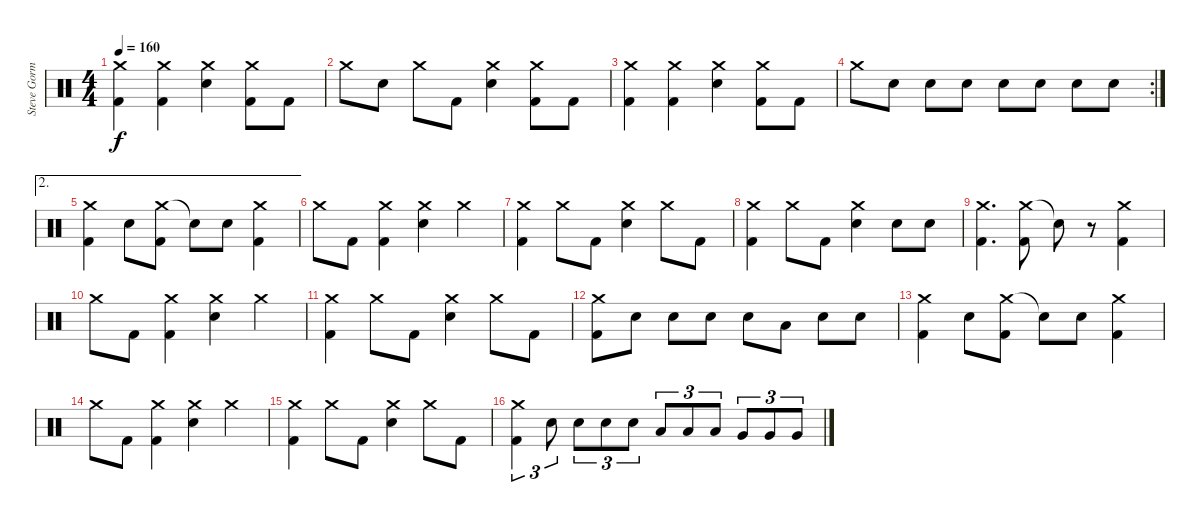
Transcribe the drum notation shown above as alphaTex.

\track ("Steve Gorman " "Steve Gorm") {instrument percussion}
\staff {score}
\articulation defaults
\ts (4 4)
\tempo 160
\clef neutral
\ks c
("Crash medium (hit)" "Kick (hit) 2").4{dy f} ("Crash medium (hit)" "Kick (hit) 2").4 ("Crash medium (hit)" "Snare (hit) 2").4 ("Crash medium (hit)" "Kick (hit) 2").8 "Kick (hit) 2".8 |
"Crash medium (hit)".8 "Snare (hit) 2".8 "Crash medium (hit)".8 "Kick (hit) 2".8 ("Crash medium (hit)" "Snare (hit) 2").4 ("Crash medium (hit)" "Kick (hit) 2").8 "Kick (hit) 2".8 |
("Crash medium (hit)" "Kick (hit) 2").4 ("Crash medium (hit)" "Kick (hit) 2").4 ("Crash medium (hit)" "Snare (hit) 2").4 ("Crash medium (hit)" "Kick (hit) 2").8 "Kick (hit) 2".8 |
\rc 2 "Crash medium (hit)".8 "Snare (hit) 2".8 "Snare (hit) 2".8 "Snare (hit) 2".8 "Snare (hit) 2".8 "Snare (hit) 2".8 "Snare (hit) 2".8 "Snare (hit) 2".8
|
\ae 2
("Crash medium (hit)" "Kick (hit) 2").4 "Snare (hit) 2".8 ("Crash medium (hit)" "Kick (hit) 2").8 "Snare (hit)"{t}.8 "Snare (hit) 2".8 ("Crash medium (hit)" "Kick (hit) 2").4 |
"Crash medium (hit)".8 "Kick (hit) 2".8 ("Crash medium (hit)" "Kick (hit) 2").4 ("Crash medium (hit)" "Snare (hit) 2").4 "Crash medium (hit)".4 |
("Crash medium (hit)" "Kick (hit) 2").4 "Crash medium (hit)".8 "Kick (hit) 2".8 ("Crash medium (hit)" "Snare (hit) 2").4 "Crash medium (hit)".8 "Kick (hit) 2".8 |
("Crash medium (hit)" "Kick (hit) 2").4 "Crash medium (hit)".8 "Kick (hit) 2".8 ("Crash medium (hit)" "Snare (hit) 2").4 "Snare (hit) 2".8 "Snare (hit) 2".8 |
("Crash medium (hit)" "Kick (hit) 2").4{d} ("Crash medium (hit)" "Kick (hit) 2").8 "Snare (hit)"{t}.8 r.8 ("Crash medium (hit)" "Kick (hit) 2").4 |
"Crash medium (hit)".8 "Kick (hit) 2".8 ("Crash medium (hit)" "Kick (hit) 2").4 ("Crash medium (hit)" "Snare (hit) 2").4 "Crash medium (hit)".4 |
("Crash medium (hit)" "Kick (hit) 2").4 "Crash medium (hit)".8 "Kick (hit) 2".8 ("Crash medium (hit)" "Snare (hit) 2").4 "Crash medium (hit)".8 "Kick (hit) 2".8 |
("Crash medium (hit)" "Kick (hit) 2").8 "Snare (hit) 2".8 "Snare (hit) 2".8 "Snare (hit) 2".8 "Snare (hit) 2".8 "Low Tom (hit)".8 "Snare (hit) 2".8 "Snare (hit) 2".8 |
("Crash medium (hit)" "Kick (hit) 2").4 "Snare (hit) 2".8 ("Crash medium (hit)" "Kick (hit) 2").8 "Snare (hit)"{t}.8 "Snare (hit) 2".8 ("Crash medium (hit)" "Kick (hit) 2").4 |
"Crash medium (hit)".8 "Kick (hit) 2".8 ("Crash medium (hit)" "Kick (hit) 2").4 ("Crash medium (hit)" "Snare (hit) 2").4 "Crash medium (hit)".4 |
("Crash medium (hit)" "Kick (hit) 2").4 "Crash medium (hit)".8 "Kick (hit) 2".8 ("Crash medium (hit)" "Snare (hit) 2").4 "Crash medium (hit)".8 "Kick (hit) 2".8 |
("Crash medium (hit)" "Kick (hit) 2").4{tu (3 2)} "Snare (hit) 2".8{tu (3 2)} "Snare (hit) 2".8{tu (3 2)} "Snare (hit) 2".8{tu (3 2)} "Snare (hit) 2".8{tu (3 2)} "Low Tom (hit)".8{tu (3 2)} "Low Tom (hit)".8{tu (3 2)} "Low Tom (hit)".8{tu (3 2)} "Very Low Tom (hit)".8{tu (3 2)} "Very Low Tom (hit)".8{tu (3 2)} "Very Low Tom (hit)".8{tu (3 2)}
